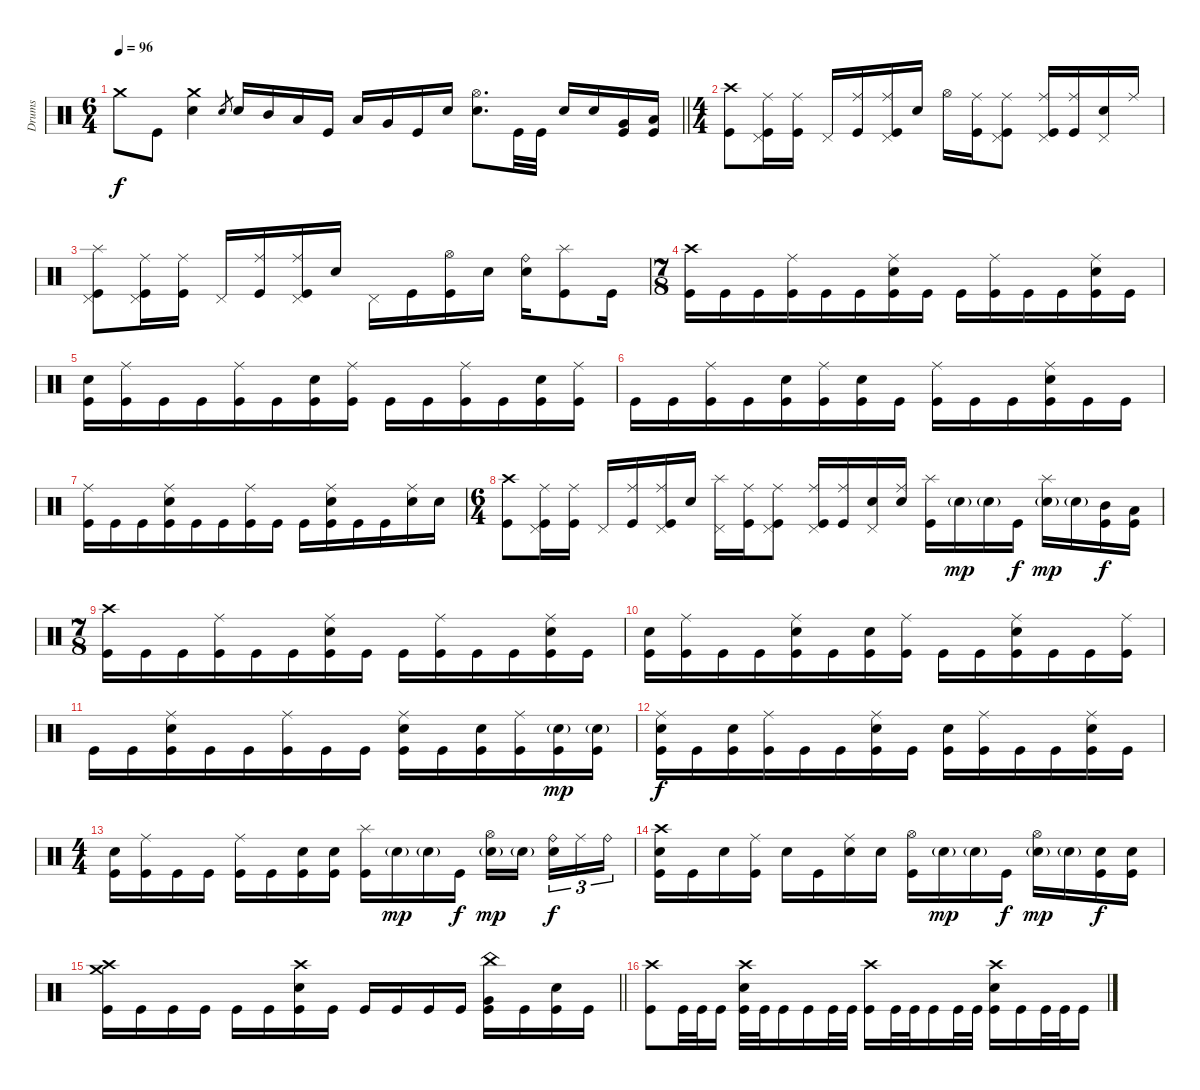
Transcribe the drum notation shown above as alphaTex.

\track ("Drums" "Drums") {instrument percussion}
\staff
\articulation defaults
\ts (6 4)
\tempo 96
\clef neutral
\barLineRight lightlight
\ks c "Crash medium (hit)".8{dy f} "Kick (hit)".8
("Crash medium (hit)" "Electric Snare (hit)").4 "Electric Snare (hit)".8{gr} "Electric Snare (hit)".16 "Mid Tom (hit)".16 "Low Tom (hit)".16 "Kick (hit)".16 "Low Tom (hit)".16 "Very Low Tom (hit)".16 "Kick (hit)".16 "Electric Snare (hit)".16 ("Hi-Hat (open)" "Electric Snare (hit)").8{d} "Kick (hit)".32 "Kick (hit)".32 "Electric Snare (hit)".16 "Electric Snare (hit)".16 ("Very Low Tom (hit)" "Kick (hit)").16 ("Low Floor Tom (hit)" "Kick (hit)").16 |
\ts (4 4)
\section ("" "")
("Crash high (hit)" "Kick (hit)").8 ("Ride (middle)" "Pedal Hi-Hat (hit)" "Kick (hit)").16 ("Ride (middle)" "Kick (hit)").16 "Pedal Hi-Hat (hit)".16 ("Ride (middle)" "Kick (hit)").16 ("Ride (middle)" "Pedal Hi-Hat (hit)" "Kick (hit)").16 "Electric Snare (hit)".16 "Hi-Hat (open)".16 ("Ride (middle)" "Kick (hit)").16 ("Ride (middle)" "Pedal Hi-Hat (hit)" "Kick (hit)").8 ("Ride (middle)" "Pedal Hi-Hat (hit)" "Kick (hit)").16 ("Ride (middle)" "Kick (hit)").16 ("Pedal Hi-Hat (hit)" "Electric Snare (hit)").16 "Ride (middle)".16 |
("Splash (hit)" "Pedal Hi-Hat (hit)" "Kick (hit)").8 ("Ride (middle)" "Pedal Hi-Hat (hit)" "Kick (hit)").16 ("Ride (middle)" "Kick (hit)").16 "Pedal Hi-Hat (hit)".16 ("Ride (middle)" "Kick (hit)").16 ("Ride (middle)" "Pedal Hi-Hat (hit)" "Kick (hit)").16 "Electric Snare (hit)".16 "Pedal Hi-Hat (hit)".16 "Kick (hit)".16 ("Hi-Hat (open)" "Kick (hit)").16 "Electric Snare (hit)".16 ("Ride (bell)" "Electric Snare (hit)").16 ("Splash (hit)" "Kick (hit)").8 "Kick (hit)".16 |
\ts (7 8)
("Crash high (hit)" "Kick (hit)").16 "Kick (hit)".16 "Kick (hit)".16 ("Ride (middle)" "Kick (hit)").16 "Kick (hit)".16 "Kick (hit)".16 ("Ride (middle)" "Electric Snare (hit)" "Kick (hit)").16 "Kick (hit)".16 "Kick (hit)".16 ("Ride (middle)" "Kick (hit)").16 "Kick (hit)".16 "Kick (hit)".16 ("Ride (middle)" "Electric Snare (hit)" "Kick (hit)").16 "Kick (hit)".16 |
("Electric Snare (hit)" "Kick (hit)").16 ("Ride (middle)" "Kick (hit)").16 "Kick (hit)".16 "Kick (hit)".16 ("Ride (middle)" "Kick (hit)").16 "Kick (hit)".16 ("Electric Snare (hit)" "Kick (hit)").16 ("Ride (middle)" "Kick (hit)").16 "Kick (hit)".16 "Kick (hit)".16 ("Ride (middle)" "Kick (hit)").16 "Kick (hit)".16 ("Electric Snare (hit)" "Kick (hit)").16 ("Ride (middle)" "Kick (hit)").16 |
"Kick (hit)".16 "Kick (hit)".16 ("Ride (middle)" "Kick (hit)").16 "Kick (hit)".16 ("Electric Snare (hit)" "Kick (hit)").16 ("Ride (middle)" "Kick (hit)").16 ("Electric Snare (hit)" "Kick (hit)").16 "Kick (hit)".16 ("Ride (middle)" "Kick (hit)").16 "Kick (hit)".16 "Kick (hit)".16 ("Ride (middle)" "Electric Snare (hit)" "Kick (hit)").16 "Kick (hit)".16 "Kick (hit)".16 |
("Ride (middle)" "Kick (hit)").16 "Kick (hit)".16 "Kick (hit)".16 ("Ride (middle)" "Electric Snare (hit)" "Kick (hit)").16 "Kick (hit)".16 "Kick (hit)".16 ("Ride (middle)" "Kick (hit)").16 "Kick (hit)".16 "Kick (hit)".16 ("Ride (middle)" "Electric Snare (hit)" "Kick (hit)").16 "Kick (hit)".16 "Kick (hit)".16 ("Ride (middle)" "Electric Snare (hit)").16 "Electric Snare (hit)".16 |
\ts (6 4)
("Crash high (hit)" "Kick (hit)").8 ("Ride (middle)" "Pedal Hi-Hat (hit)" "Kick (hit)").16 ("Ride (middle)" "Kick (hit)").16 "Pedal Hi-Hat (hit)".16 ("Ride (middle)" "Kick (hit)").16 ("Ride (middle)" "Pedal Hi-Hat (hit)" "Kick (hit)").16 "Electric Snare (hit)".16 ("Splash (hit)" "Pedal Hi-Hat (hit)").16 ("Ride (middle)" "Kick (hit)").16 ("Ride (middle)" "Pedal Hi-Hat (hit)" "Kick (hit)").8 ("Ride (middle)" "Pedal Hi-Hat (hit)" "Kick (hit)").16 ("Ride (middle)" "Kick (hit)").16 ("Pedal Hi-Hat (hit)" "Electric Snare (hit)").16 ("Ride (middle)" "Electric Snare (hit)").16 ("Splash (hit)" "Kick (hit)").16 "Electric Snare (hit)"{g}.16{dy mp} "Electric Snare (hit)"{g}.16 "Kick (hit)".16{dy f} ("Splash (hit)" "Electric Snare (hit)"{g}).16{dy mp} "Electric Snare (hit)"{g}.16 ("Mid Tom (hit)" "Kick (hit)").16{dy f} ("Low Tom (hit)" "Kick (hit)").16 |
\ts (7 8)
("Crash high (hit)" "Kick (hit)").16 "Kick (hit)".16 "Kick (hit)".16 ("Ride (middle)" "Kick (hit)").16 "Kick (hit)".16 "Kick (hit)".16 ("Ride (middle)" "Electric Snare (hit)" "Kick (hit)").16 "Kick (hit)".16 "Kick (hit)".16 ("Ride (middle)" "Kick (hit)").16 "Kick (hit)".16 "Kick (hit)".16 ("Ride (middle)" "Electric Snare (hit)" "Kick (hit)").16 "Kick (hit)".16 |
("Electric Snare (hit)" "Kick (hit)").16 ("Ride (middle)" "Kick (hit)").16 "Kick (hit)".16 "Kick (hit)".16 ("Ride (middle)" "Electric Snare (hit)" "Kick (hit)").16 "Kick (hit)".16 ("Electric Snare (hit)" "Kick (hit)").16 ("Ride (middle)" "Kick (hit)").16 "Kick (hit)".16 "Kick (hit)".16 ("Ride (middle)" "Electric Snare (hit)" "Kick (hit)").16 "Kick (hit)".16 "Kick (hit)".16 ("Ride (middle)" "Kick (hit)").16 |
"Kick (hit)".16 "Kick (hit)".16 ("Ride (middle)" "Electric Snare (hit)" "Kick (hit)").16 "Kick (hit)".16 "Kick (hit)".16 ("Ride (middle)" "Kick (hit)").16 "Kick (hit)".16 "Kick (hit)".16 ("Ride (middle)" "Electric Snare (hit)" "Kick (hit)").16 "Kick (hit)".16 ("Electric Snare (hit)" "Kick (hit)").16 ("Ride (middle)" "Kick (hit)").16 ("Electric Snare (hit)"{g} "Kick (hit)").16{dy mp} ("Electric Snare (hit)"{g} "Kick (hit)").16 |
("Ride (middle)" "Electric Snare (hit)" "Kick (hit)").16{dy f} "Kick (hit)".16 ("Electric Snare (hit)" "Kick (hit)").16 ("Ride (middle)" "Kick (hit)").16 "Kick (hit)".16 "Kick (hit)".16 ("Ride (middle)" "Electric Snare (hit)" "Kick (hit)").16 "Kick (hit)".16 ("Electric Snare (hit)" "Kick (hit)").16 ("Ride (middle)" "Kick (hit)").16 "Kick (hit)".16 "Kick (hit)".16 ("Ride (middle)" "Electric Snare (hit)" "Kick (hit)").16 "Kick (hit)".16 |
\ts (4 4)
("Electric Snare (hit)" "Kick (hit)").16 ("Ride (middle)" "Kick (hit)").16 "Kick (hit)".16 "Kick (hit)".16 ("Ride (middle)" "Kick (hit)").16 "Kick (hit)".16 ("Electric Snare (hit)" "Kick (hit)").16 ("Electric Snare (hit)" "Kick (hit)").16 ("Splash (hit)" "Kick (hit)").16 "Electric Snare (hit)"{g}.16{dy mp} "Electric Snare (hit)"{g}.16 "Kick (hit)".16{dy f} ("Hi-Hat (open)" "Electric Snare (hit)"{g}).16{dy mp} "Electric Snare (hit)"{g}.16{beam splitsecondary} ("Ride (bell)" "Electric Snare (hit)").16{tu (3 2) dy f} "Ride (middle)".16{tu (3 2)} "Ride (bell)".16{tu (3 2)} |
("Crash high (hit)" "Electric Snare (hit)" "Kick (hit)").16 "Kick (hit)".16 "Electric Snare (hit)".16 ("Ride (middle)" "Kick (hit)").16 "Electric Snare (hit)".16 "Kick (hit)".16 ("Ride (middle)" "Electric Snare (hit)").16 "Electric Snare (hit)".16 ("Hi-Hat (open)" "Kick (hit)").16 "Electric Snare (hit)"{g}.16{dy mp} "Electric Snare (hit)"{g}.16 "Kick (hit)".16{dy f} ("Hi-Hat (open)" "Electric Snare (hit)"{g}).16{dy mp} "Electric Snare (hit)"{g}.16 ("Electric Snare (hit)" "Kick (hit)").16{dy f} ("Electric Snare (hit)" "Kick (hit)").16 |
\barLineRight lightlight
("Crash high (hit)" "Crash medium (hit)" "Kick (hit)").16 "Kick (hit)".16 "Kick (hit)".16 "Kick (hit)".16 "Kick (hit)".16 "Kick (hit)".16 ("Crash high (hit)" "Electric Snare (hit)" "Kick (hit)").16 "Kick (hit)".16 "Kick (hit)".16 "Kick (hit)".16 "Kick (hit)".16 "Kick (hit)".16 ("China (hit)" "Very Low Tom (hit)" "Kick (hit)").16 "Kick (hit)".16 ("Electric Snare (hit)" "Kick (hit)").16 "Kick (hit)".16 |
\section ("" "")
("Crash high (hit)" "Kick (hit)").8 "Kick (hit)".32 "Kick (hit)".32 "Kick (hit)".16 ("Crash high (hit)" "Electric Snare (hit)" "Kick (hit)").32 "Kick (hit)".32 "Kick (hit)".16 "Kick (hit)".16 "Kick (hit)".32 "Kick (hit)".32 ("Crash high (hit)" "Kick (hit)").16 "Kick (hit)".32 "Kick (hit)".32 "Kick (hit)".16 "Kick (hit)".32 "Kick (hit)".32 ("Crash high (hit)" "Electric Snare (hit)" "Kick (hit)").16 "Kick (hit)".16 "Kick (hit)".32 "Kick (hit)".32 "Kick (hit)".16
